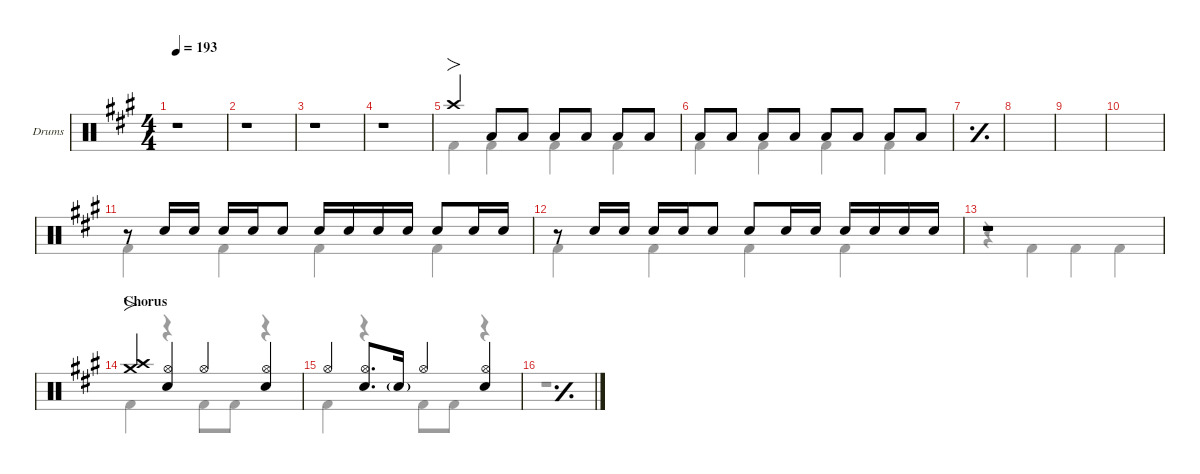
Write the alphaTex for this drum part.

\defaultSystemsLayout 4
\hideDynamics
\bracketExtendMode nobrackets
\firstSystemTrackNameOrientation horizontal
\track ("Drums" "Drums") {defaultSystemsLayout 4 instrument percussion}
\staff {score}
\articulation defaults
\voice
\ts (4 4)
\tempo 193
\clef neutral
\scale
0.266618
\ks a
r.1{dy f beam Up} |
\scale
0.244461 r.1{beam Up} |
\scale
0.244461 r.1{beam Up} |
\scale
0.244461 r.1{beam Up} |
\scale
0.266618 "Crash high (hit)"{acc forcenatural}.4{fo beam Up} "Low Tom (hit)"{acc forcenatural}.8{beam Up} "Low Tom (hit)"{acc forcenatural}.8{beam Up} "Low Tom (hit)"{acc forcenatural}.8{beam Up} "Low Tom (hit)"{acc forcenatural}.8{beam Up} "Low Tom (hit)"{acc forcenatural}.8{beam Up} "Low Tom (hit)"{acc forcenatural}.8{beam Up} |
\scale
0.244461 "Low Tom (hit)"{acc forcenatural}.8{beam Up} "Low Tom (hit)"{acc forcenatural}.8{beam Up} "Low Tom (hit)"{acc forcenatural}.8{beam Up} "Low Tom (hit)"{acc forcenatural}.8{beam Up} "Low Tom (hit)"{acc forcenatural}.8{beam Up} "Low Tom (hit)"{acc forcenatural}.8{beam Up} "Low Tom (hit)"{acc forcenatural}.8{beam Up} "Low Tom (hit)"{acc forcenatural}.8{beam Up} |
\simile simple
\scale
0.244461 |
\scale
0.244461 |
\scale
0.266618 |
\scale
0.24446 |
\simile none
\scale
0.24446 r.8{beam Up} "Snare (hit) 2"{acc forcenatural}.16{beam Up} "Snare (hit) 2"{acc forcenatural}.16{dy mf beam Up beam split} "Snare (hit) 2"{acc forcenatural}.16{dy f beam Up} "Snare (hit) 2"{acc forcenatural}.16{dy mf beam Up} "Snare (hit) 2"{acc forcenatural}.8{dy f beam Up} "Snare (hit) 2"{acc forcenatural}.16{beam Up} "Snare (hit) 2"{acc forcenatural}.16{dy mf beam Up beam merge} "Snare (hit) 2"{acc forcenatural}.16{dy f beam Up} "Snare (hit) 2"{acc forcenatural}.16{dy mf beam Up beam split} "Snare (hit) 2"{acc forcenatural}.8{dy f beam Up} "Snare (hit) 2"{acc forcenatural}.16{beam Up} "Snare (hit) 2"{acc forcenatural}.16{dy mf beam Up} |
\scale
0.244461 r.8{beam Up} "Snare (hit) 2"{acc forcenatural}.16{dy f beam Up} "Snare (hit) 2"{acc forcenatural}.16{dy mf beam Up beam split} "Snare (hit) 2"{acc forcenatural}.16{dy f beam Up} "Snare (hit) 2"{acc forcenatural}.16{dy mf beam Up} "Snare (hit) 2"{acc forcenatural}.8{dy f beam Up} "Snare (hit) 2"{acc forcenatural}.8{beam Up} "Snare (hit) 2"{acc forcenatural}.16{beam Up} "Snare (hit) 2"{acc forcenatural}.16{dy mf beam Up beam split} "Snare (hit) 2"{acc forcenatural}.16{dy f beam Up} "Snare (hit) 2"{acc forcenatural}.16{dy mf beam Up beam merge} "Snare (hit) 2"{acc forcenatural}.16{dy f beam Up} "Snare (hit) 2"{acc forcenatural}.16{dy mf beam Up beam split} |
r.1{beam Up} |
\section ("" "Chorus")
\scale
0.266618 ("Crash high (hit)"{acc forcenatural} "Crash medium (hit)"{acc forcenatural}).4{fo dy f beam Up} ("Hi-Hat (open)"{acc forcenatural} "Snare (hit) 2"{acc forcenatural}).4{beam Up} "Hi-Hat (open)"{acc forcenatural}.4{beam Up} ("Hi-Hat (open)"{acc forcenatural} "Snare (hit) 2"{acc forcenatural}).4{beam Up} |
\scale
0.244461 "Hi-Hat (open)"{acc forcenatural}.4{beam Up} ("Hi-Hat (open)"{acc forcenatural} "Snare (hit) 2"{acc forcenatural}).8{d beam Up} "Snare (hit) 2"{g acc forcenatural}.16{dy mf beam Up} "Hi-Hat (open)"{acc forcenatural}.4{dy f beam Up} ("Hi-Hat (open)"{acc forcenatural} "Snare (hit) 2"{acc forcenatural}).4{beam Up} |
\simile simple
\scale
0.24446
\voice
\clef neutral
\ottava regular
\simile none
\scale
0.266618
\ks a
r.1{dy f beam Down} |
\scale
0.244461 r.1{beam Down} |
\scale
0.244461 r.1{beam Down} |
\scale
0.244461 r.1{beam Down} |
\scale
0.266618 "Kick (hit) 2"{acc forcenatural}.4{beam Down} "Kick (hit) 2"{acc forcenatural}.4{beam Down} "Kick (hit) 2"{acc forcenatural}.4{beam Down} "Kick (hit) 2"{acc forcenatural}.4{beam Down} |
\scale
0.244461 "Kick (hit) 2"{acc forcenatural}.4{beam Down} "Kick (hit) 2"{acc forcenatural}.4{beam Down} "Kick (hit) 2"{acc forcenatural}.4{beam Down} "Kick (hit) 2"{acc forcenatural}.4{beam Down} |
\simile simple
\scale
0.244461 |
\scale
0.244461 |
\scale
0.266618 |
\scale
0.24446 |
\simile none
\scale
0.24446 "Kick (hit) 2"{acc forcenatural}.4{beam Down} "Kick (hit) 2"{acc forcenatural}.4{beam Down} "Kick (hit) 2"{acc forcenatural}.4{beam Down} "Kick (hit) 2"{acc forcenatural}.4{beam Down} |
\scale
0.244461 "Kick (hit) 2"{acc forcenatural}.4{beam Down} "Kick (hit) 2"{acc forcenatural}.4{beam Down} "Kick (hit) 2"{acc forcenatural}.4{beam Down} "Kick (hit) 2"{acc forcenatural}.4{beam Down} |
r.4{beam Down} "Kick (hit) 2"{acc forcenatural}.4{beam Down} "Kick (hit) 2"{acc forcenatural}.4{beam Down} "Kick (hit) 2"{acc forcenatural}.4{beam Down} |
\scale
0.266618 "Kick (hit) 2"{acc forcenatural}.4{beam Down} r.4{beam Down} "Kick (hit) 2"{acc forcenatural}.8{beam Down} "Kick (hit) 2"{acc forcenatural}.8{beam Down} r.4{beam Down} |
\scale
0.244461 "Kick (hit) 2"{acc forcenatural}.4{beam Down} r.4{beam Down} "Kick (hit) 2"{acc forcenatural}.8{beam Down} "Kick (hit) 2"{acc forcenatural}.8{beam Down} r.4{beam Down} |
\simile simple
\scale
0.24446
